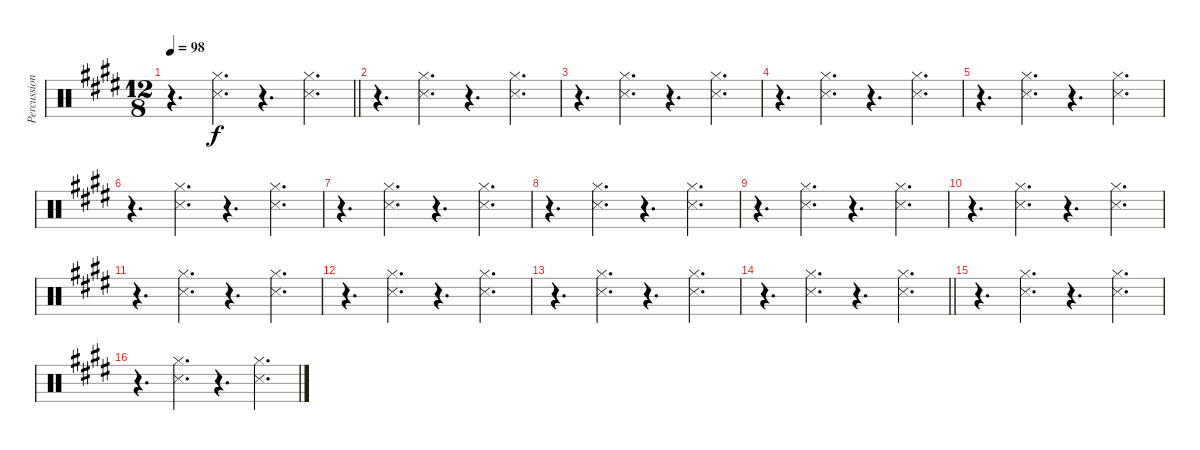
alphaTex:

\track ("Percussion" "Percussion") {instrument percussion}
\staff {score}
\articulation defaults
\ts (12 8)
\tempo 98
\clef neutral
\barLineRight lightlight
\ks e
r.4{d dy f} ("Hi-Hat (closed)" "Snare (side stick) 3").4{d} r.4{d} ("Hi-Hat (closed)" "Snare (side stick) 3").4{d} |
r.4{d} ("Hi-Hat (closed)" "Snare (side stick) 3").4{d} r.4{d} ("Hi-Hat (closed)" "Snare (side stick) 3").4{d} |
r.4{d} ("Hi-Hat (closed)" "Snare (side stick) 3").4{d} r.4{d} ("Hi-Hat (closed)" "Snare (side stick) 3").4{d} |
r.4{d} ("Hi-Hat (closed)" "Snare (side stick) 3").4{d} r.4{d} ("Hi-Hat (closed)" "Snare (side stick) 3").4{d} |
r.4{d} ("Hi-Hat (closed)" "Snare (side stick) 3").4{d} r.4{d} ("Hi-Hat (closed)" "Snare (side stick) 3").4{d} |
r.4{d} ("Hi-Hat (closed)" "Snare (side stick) 3").4{d} r.4{d} ("Hi-Hat (closed)" "Snare (side stick) 3").4{d} |
r.4{d} ("Hi-Hat (closed)" "Snare (side stick) 3").4{d} r.4{d} ("Hi-Hat (closed)" "Snare (side stick) 3").4{d} |
r.4{d} ("Hi-Hat (closed)" "Snare (side stick) 3").4{d} r.4{d} ("Hi-Hat (closed)" "Snare (side stick) 3").4{d} |
r.4{d} ("Hi-Hat (closed)" "Snare (side stick) 3").4{d} r.4{d} ("Hi-Hat (closed)" "Snare (side stick) 3").4{d} |
r.4{d} ("Hi-Hat (closed)" "Snare (side stick) 3").4{d} r.4{d} ("Hi-Hat (closed)" "Snare (side stick) 3").4{d} |
r.4{d} ("Hi-Hat (closed)" "Snare (side stick) 3").4{d} r.4{d} ("Hi-Hat (closed)" "Snare (side stick) 3").4{d} |
r.4{d} ("Hi-Hat (closed)" "Snare (side stick) 3").4{d} r.4{d} ("Hi-Hat (closed)" "Snare (side stick) 3").4{d} |
r.4{d} ("Hi-Hat (closed)" "Snare (side stick) 3").4{d} r.4{d} ("Hi-Hat (closed)" "Snare (side stick) 3").4{d} |
\barLineRight lightlight
r.4{d} ("Hi-Hat (closed)" "Snare (side stick) 3").4{d} r.4{d} ("Hi-Hat (closed)" "Snare (side stick) 3").4{d} |
r.4{d} ("Hi-Hat (closed)" "Snare (side stick) 3").4{d} r.4{d} ("Hi-Hat (closed)" "Snare (side stick) 3").4{d} |
r.4{d} ("Hi-Hat (closed)" "Snare (side stick) 3").4{d} r.4{d} ("Hi-Hat (closed)" "Snare (side stick) 3").4{d}
